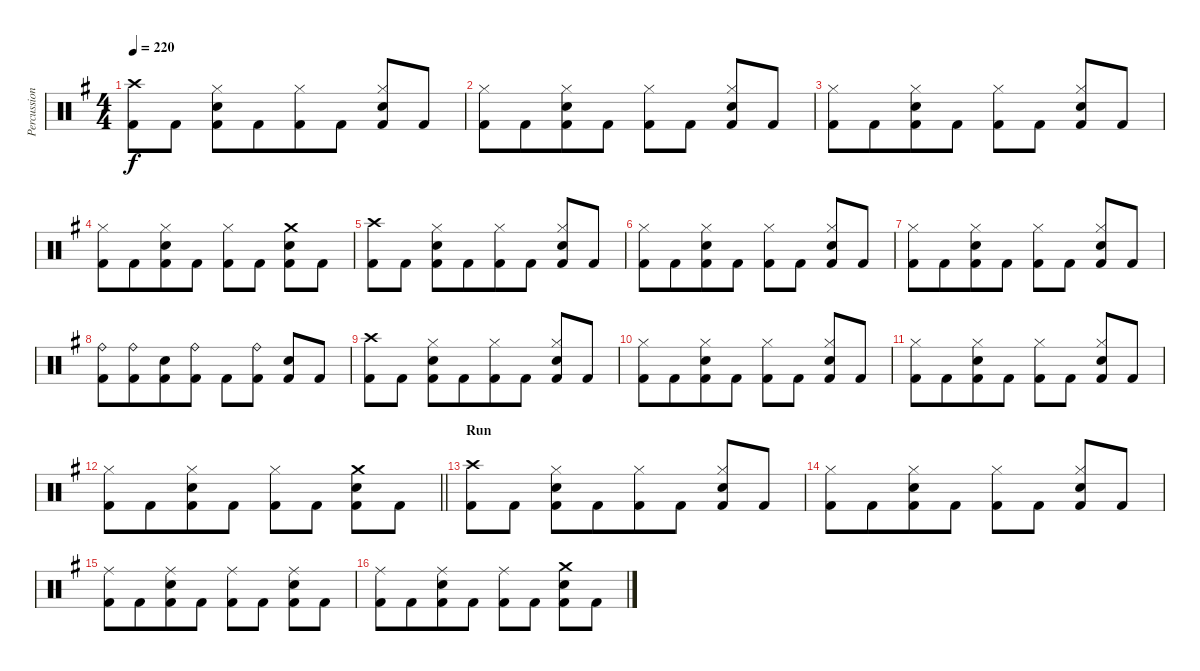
\track ("Percussion" "Percussion") {instrument percussion}
\staff {score}
\articulation defaults
\ts (4 4)
\tempo 220
\clef neutral
\ks eminor
("Crash high (hit)" "Kick (hit) 2").8{dy f beam merge} "Kick (hit) 2".8 ("Hi-Hat (closed)" "Snare (hit) 2" "Kick (hit) 2").8{beam merge} "Kick (hit) 2".8{beam merge} ("Hi-Hat (closed)" "Kick (hit) 2").8 "Kick (hit) 2".8 ("Hi-Hat (closed)" "Snare (hit) 2" "Kick (hit) 2").8{beam merge} "Kick (hit) 2".8 |
("Hi-Hat (closed)" "Kick (hit) 2").8 "Kick (hit) 2".8{beam merge} ("Hi-Hat (closed)" "Snare (hit) 2" "Kick (hit) 2").8{beam merge} "Kick (hit) 2".8 ("Hi-Hat (closed)" "Kick (hit) 2").8{beam merge} "Kick (hit) 2".8 ("Hi-Hat (closed)" "Snare (hit) 2" "Kick (hit) 2").8 "Kick (hit) 2".8 |
("Hi-Hat (closed)" "Kick (hit) 2").8 "Kick (hit) 2".8{beam merge} ("Hi-Hat (closed)" "Snare (hit) 2" "Kick (hit) 2").8{beam merge} "Kick (hit) 2".8 ("Hi-Hat (closed)" "Kick (hit) 2").8{beam merge} "Kick (hit) 2".8 ("Hi-Hat (closed)" "Snare (hit) 2" "Kick (hit) 2").8 "Kick (hit) 2".8 |
("Hi-Hat (closed)" "Kick (hit) 2").8 "Kick (hit) 2".8{beam merge} ("Hi-Hat (closed)" "Snare (hit) 2" "Kick (hit) 2").8{beam merge} "Kick (hit) 2".8 ("Hi-Hat (closed)" "Kick (hit) 2").8{beam merge} "Kick (hit) 2".8 ("Crash medium (hit)" "Snare (hit) 2" "Kick (hit) 2").8 "Kick (hit) 2".8 |
("Crash high (hit)" "Kick (hit) 2").8{beam merge} "Kick (hit) 2".8 ("Hi-Hat (closed)" "Snare (hit) 2" "Kick (hit) 2").8{beam merge} "Kick (hit) 2".8{beam merge} ("Hi-Hat (closed)" "Kick (hit) 2").8 "Kick (hit) 2".8 ("Hi-Hat (closed)" "Snare (hit) 2" "Kick (hit) 2").8{beam merge} "Kick (hit) 2".8 |
("Hi-Hat (closed)" "Kick (hit) 2").8 "Kick (hit) 2".8{beam merge} ("Hi-Hat (closed)" "Snare (hit) 2" "Kick (hit) 2").8{beam merge} "Kick (hit) 2".8 ("Hi-Hat (closed)" "Kick (hit) 2").8{beam merge} "Kick (hit) 2".8 ("Hi-Hat (closed)" "Snare (hit) 2" "Kick (hit) 2").8 "Kick (hit) 2".8 |
("Hi-Hat (closed)" "Kick (hit) 2").8 "Kick (hit) 2".8{beam merge} ("Hi-Hat (closed)" "Snare (hit) 2" "Kick (hit) 2").8{beam merge} "Kick (hit) 2".8 ("Hi-Hat (closed)" "Kick (hit) 2").8{beam merge} "Kick (hit) 2".8 ("Hi-Hat (closed)" "Snare (hit) 2" "Kick (hit) 2").8 "Kick (hit) 2".8 |
("Ride (bell)" "Kick (hit) 2").8 ("Ride (bell)" "Kick (hit) 2").8{beam merge} ("Snare (hit) 2" "Kick (hit) 2").8{beam merge} ("Ride (bell)" "Kick (hit) 2").8 "Kick (hit) 2".8{beam merge} ("Ride (bell)" "Kick (hit) 2").8 ("Snare (hit) 2" "Kick (hit) 2").8 "Kick (hit) 2".8 |
("Crash high (hit)" "Kick (hit) 2").8{beam merge} "Kick (hit) 2".8 ("Hi-Hat (closed)" "Snare (hit) 2" "Kick (hit) 2").8{beam merge} "Kick (hit) 2".8{beam merge} ("Hi-Hat (closed)" "Kick (hit) 2").8 "Kick (hit) 2".8 ("Hi-Hat (closed)" "Snare (hit) 2" "Kick (hit) 2").8{beam merge} "Kick (hit) 2".8 |
("Hi-Hat (closed)" "Kick (hit) 2").8 "Kick (hit) 2".8{beam merge} ("Hi-Hat (closed)" "Snare (hit) 2" "Kick (hit) 2").8{beam merge} "Kick (hit) 2".8 ("Hi-Hat (closed)" "Kick (hit) 2").8{beam merge} "Kick (hit) 2".8 ("Hi-Hat (closed)" "Snare (hit) 2" "Kick (hit) 2").8 "Kick (hit) 2".8 |
("Hi-Hat (closed)" "Kick (hit) 2").8 "Kick (hit) 2".8{beam merge} ("Hi-Hat (closed)" "Snare (hit) 2" "Kick (hit) 2").8{beam merge} "Kick (hit) 2".8 ("Hi-Hat (closed)" "Kick (hit) 2").8{beam merge} "Kick (hit) 2".8 ("Hi-Hat (closed)" "Snare (hit) 2" "Kick (hit) 2").8 "Kick (hit) 2".8 |
\barLineRight lightlight
("Hi-Hat (closed)" "Kick (hit) 2").8 "Kick (hit) 2".8{beam merge} ("Hi-Hat (closed)" "Snare (hit) 2" "Kick (hit) 2").8{beam merge} "Kick (hit) 2".8 ("Hi-Hat (closed)" "Kick (hit) 2").8{beam merge} "Kick (hit) 2".8 ("Crash medium (hit)" "Snare (hit) 2" "Kick (hit) 2").8 "Kick (hit) 2".8 |
\section ("" "Run")
("Crash high (hit)" "Kick (hit) 2").8{beam merge} "Kick (hit) 2".8 ("Hi-Hat (closed)" "Snare (hit) 2" "Kick (hit) 2").8{beam merge} "Kick (hit) 2".8{beam merge} ("Hi-Hat (closed)" "Kick (hit) 2").8 "Kick (hit) 2".8 ("Hi-Hat (closed)" "Snare (hit) 2" "Kick (hit) 2").8{beam merge} "Kick (hit) 2".8 |
("Hi-Hat (closed)" "Kick (hit) 2").8 "Kick (hit) 2".8{beam merge} ("Hi-Hat (closed)" "Snare (hit) 2" "Kick (hit) 2").8{beam merge} "Kick (hit) 2".8 ("Hi-Hat (closed)" "Kick (hit) 2").8{beam merge} "Kick (hit) 2".8 ("Hi-Hat (closed)" "Snare (hit) 2" "Kick (hit) 2").8 "Kick (hit) 2".8 |
("Ride (middle)" "Kick (hit) 2").8 "Kick (hit) 2".8{beam merge} ("Ride (middle)" "Snare (hit) 2" "Kick (hit) 2").8{beam merge} "Kick (hit) 2".8 ("Ride (middle)" "Kick (hit) 2").8{beam merge} "Kick (hit) 2".8 ("Ride (middle)" "Snare (hit) 2" "Kick (hit) 2").8 "Kick (hit) 2".8 |
("Ride (middle)" "Kick (hit) 2").8 "Kick (hit) 2".8{beam merge} ("Ride (middle)" "Snare (hit) 2" "Kick (hit) 2").8{beam merge} "Kick (hit) 2".8 ("Ride (middle)" "Kick (hit) 2").8{beam merge} "Kick (hit) 2".8 ("Crash medium (hit)" "Snare (hit) 2" "Kick (hit) 2").8 "Kick (hit) 2".8
